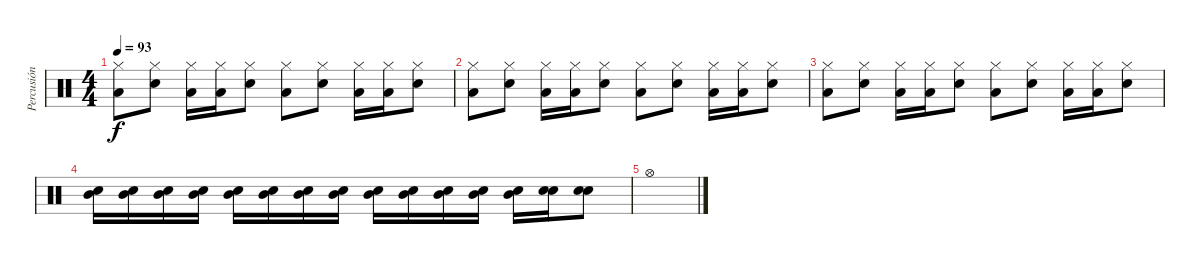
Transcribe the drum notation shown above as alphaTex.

\track ("Percusión (Miguel Tapia)" "Percusión ") {instrument percussion}
\staff {score}
\articulation defaults
\ts (4 4)
\tempo 93
\clef neutral
\ks c
("Hi-Hat (closed)" "Low Tom (hit)").8{dy f} ("Hi-Hat (closed)" "Electric Snare (hit)").8 ("Hi-Hat (closed)" "Low Tom (hit)").16 ("Hi-Hat (closed)" "Low Tom (hit)").16 ("Hi-Hat (closed)" "Electric Snare (hit)").8 ("Hi-Hat (closed)" "Low Tom (hit)").8 ("Hi-Hat (closed)" "Electric Snare (hit)").8 ("Hi-Hat (closed)" "Low Tom (hit)").16 ("Hi-Hat (closed)" "Low Tom (hit)").16 ("Hi-Hat (closed)" "Electric Snare (hit)").8 |
("Hi-Hat (closed)" "Low Tom (hit)").8 ("Hi-Hat (closed)" "Electric Snare (hit)").8 ("Hi-Hat (closed)" "Low Tom (hit)").16 ("Hi-Hat (closed)" "Low Tom (hit)").16 ("Hi-Hat (closed)" "Electric Snare (hit)").8 ("Hi-Hat (closed)" "Low Tom (hit)").8 ("Hi-Hat (closed)" "Electric Snare (hit)").8 ("Hi-Hat (closed)" "Low Tom (hit)").16 ("Hi-Hat (closed)" "Low Tom (hit)").16 ("Hi-Hat (closed)" "Electric Snare (hit)").8 |
("Hi-Hat (closed)" "Low Tom (hit)").8 ("Hi-Hat (closed)" "Electric Snare (hit)").8 ("Hi-Hat (closed)" "Low Tom (hit)").16 ("Hi-Hat (closed)" "Low Tom (hit)").16 ("Hi-Hat (closed)" "Electric Snare (hit)").8 ("Hi-Hat (closed)" "Low Tom (hit)").8 ("Hi-Hat (closed)" "Electric Snare (hit)").8 ("Hi-Hat (closed)" "Low Tom (hit)").16 ("Hi-Hat (closed)" "Low Tom (hit)").16 ("Hi-Hat (closed)" "Electric Snare (hit)").8 |
("Mid Tom (hit)" "Electric Snare (hit)").16 ("Mid Tom (hit)" "Electric Snare (hit)").16 ("Mid Tom (hit)" "Electric Snare (hit)").16 ("Mid Tom (hit)" "Electric Snare (hit)").16 ("Mid Tom (hit)" "Electric Snare (hit)").16 ("Mid Tom (hit)" "Electric Snare (hit)").16 ("Mid Tom (hit)" "Electric Snare (hit)").16 ("Mid Tom (hit)" "Electric Snare (hit)").16 ("Mid Tom (hit)" "Electric Snare (hit)").16 ("Mid Tom (hit)" "Electric Snare (hit)").16 ("Mid Tom (hit)" "Electric Snare (hit)").16 ("Mid Tom (hit)" "Electric Snare (hit)").16 ("Mid Tom (hit)" "Electric Snare (hit)").16 ("Snare (hit)" "Snare (hit)").16 ("Snare (hit)" "Snare (hit)").8 |
"Hi-Hat (open)".1
